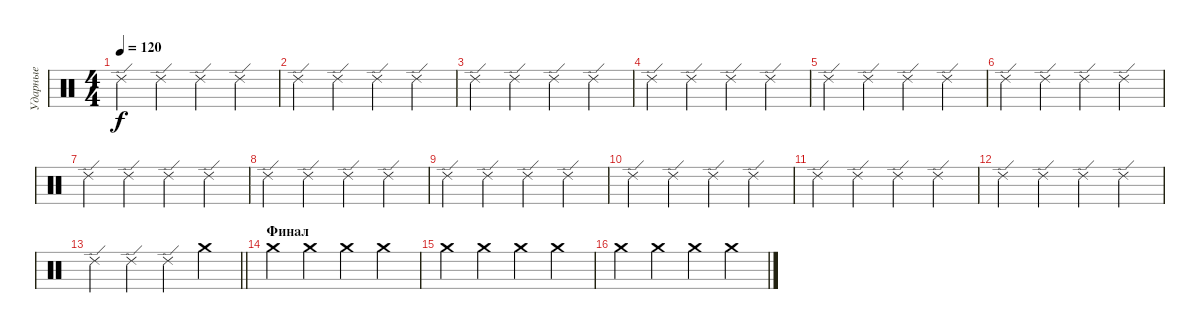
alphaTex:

\track ("Ударные" "Ударные") {instrument percussion}
\staff {score}
\articulation defaults
\ts (4 4)
\tempo 120
\clef neutral
\ks c "Ride (edge) 2".4{dy f} "Ride (edge) 2".4 "Ride (edge) 2".4 "Ride (edge) 2".4
|
"Ride (edge) 2".4 "Ride (edge) 2".4 "Ride (edge) 2".4 "Ride (edge) 2".4 |
"Ride (edge) 2".4 "Ride (edge) 2".4 "Ride (edge) 2".4 "Ride (edge) 2".4 |
"Ride (edge) 2".4 "Ride (edge) 2".4 "Ride (edge) 2".4 "Ride (edge) 2".4 |
"Ride (edge) 2".4 "Ride (edge) 2".4 "Ride (edge) 2".4 "Ride (edge) 2".4 |
"Ride (edge) 2".4 "Ride (edge) 2".4 "Ride (edge) 2".4 "Ride (edge) 2".4 |
"Ride (edge) 2".4 "Ride (edge) 2".4 "Ride (edge) 2".4 "Ride (edge) 2".4 |
"Ride (edge) 2".4 "Ride (edge) 2".4 "Ride (edge) 2".4 "Ride (edge) 2".4 |
"Ride (edge) 2".4 "Ride (edge) 2".4 "Ride (edge) 2".4 "Ride (edge) 2".4 |
"Ride (edge) 2".4 "Ride (edge) 2".4 "Ride (edge) 2".4 "Ride (edge) 2".4 |
"Ride (edge) 2".4 "Ride (edge) 2".4 "Ride (edge) 2".4 "Ride (edge) 2".4 |
"Ride (edge) 2".4 "Ride (edge) 2".4 "Ride (edge) 2".4 "Ride (edge) 2".4 |
\barLineRight lightlight "Ride (edge) 2".4 "Ride (edge) 2".4 "Ride (edge) 2".4 "Crash medium (hit)".4
|
\section ("" "Финал")
"Crash medium (hit)".4 "Crash medium (hit)".4 "Crash medium (hit)".4 "Crash medium (hit)".4 |
"Crash medium (hit)".4 "Crash medium (hit)".4 "Crash medium (hit)".4 "Crash medium (hit)".4 |
"Crash medium (hit)".4 "Crash medium (hit)".4 "Crash medium (hit)".4 "Crash medium (hit)".4
